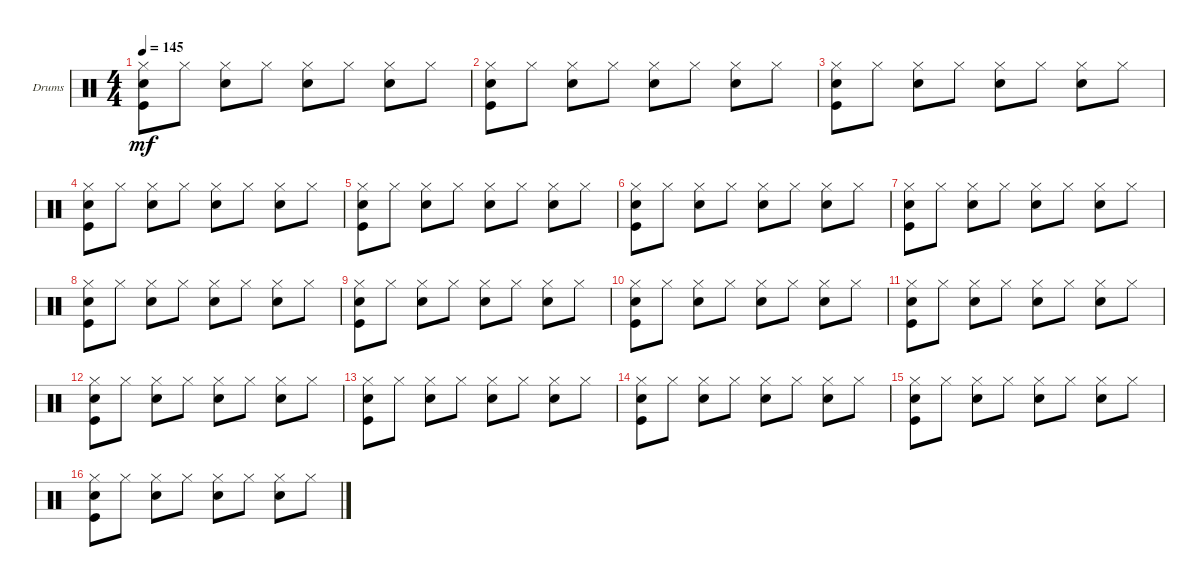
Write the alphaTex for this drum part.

\bracketExtendMode groupsimilarinstruments
\firstSystemTrackNameOrientation horizontal
\otherSystemsTrackNameOrientation horizontal
\track ("Drumkit" "Drums") {instrument percussion}
\staff {score}
\articulation defaults
\ts (4 4)
\tempo 145
\clef neutral
\ks c
("Hi-Hat (closed)" "Kick (hit)" "Snare (hit) 2").8{dy mf} "Hi-Hat (closed)".8 ("Hi-Hat (closed)" "Snare (hit) 2").8 "Hi-Hat (closed)".8 ("Hi-Hat (closed)" "Snare (hit) 2").8 "Hi-Hat (closed)".8 ("Hi-Hat (closed)" "Snare (hit) 2").8 "Hi-Hat (closed)".8 |
("Hi-Hat (closed)" "Kick (hit)" "Snare (hit) 2").8 "Hi-Hat (closed)".8 ("Hi-Hat (closed)" "Snare (hit) 2").8 "Hi-Hat (closed)".8 ("Hi-Hat (closed)" "Snare (hit) 2").8 "Hi-Hat (closed)".8 ("Hi-Hat (closed)" "Snare (hit) 2").8 "Hi-Hat (closed)".8 |
("Hi-Hat (closed)" "Kick (hit)" "Snare (hit) 2").8 "Hi-Hat (closed)".8 ("Hi-Hat (closed)" "Snare (hit) 2").8 "Hi-Hat (closed)".8 ("Hi-Hat (closed)" "Snare (hit) 2").8 "Hi-Hat (closed)".8 ("Hi-Hat (closed)" "Snare (hit) 2").8 "Hi-Hat (closed)".8 |
("Hi-Hat (closed)" "Kick (hit)" "Snare (hit) 2").8 "Hi-Hat (closed)".8 ("Hi-Hat (closed)" "Snare (hit) 2").8 "Hi-Hat (closed)".8 ("Hi-Hat (closed)" "Snare (hit) 2").8 "Hi-Hat (closed)".8 ("Hi-Hat (closed)" "Snare (hit) 2").8 "Hi-Hat (closed)".8 |
("Hi-Hat (closed)" "Kick (hit)" "Snare (hit) 2").8 "Hi-Hat (closed)".8 ("Hi-Hat (closed)" "Snare (hit) 2").8 "Hi-Hat (closed)".8 ("Hi-Hat (closed)" "Snare (hit) 2").8 "Hi-Hat (closed)".8 ("Hi-Hat (closed)" "Snare (hit) 2").8 "Hi-Hat (closed)".8 |
("Hi-Hat (closed)" "Kick (hit)" "Snare (hit) 2").8 "Hi-Hat (closed)".8 ("Hi-Hat (closed)" "Snare (hit) 2").8 "Hi-Hat (closed)".8 ("Hi-Hat (closed)" "Snare (hit) 2").8 "Hi-Hat (closed)".8 ("Hi-Hat (closed)" "Snare (hit) 2").8 "Hi-Hat (closed)".8 |
("Hi-Hat (closed)" "Kick (hit)" "Snare (hit) 2").8 "Hi-Hat (closed)".8 ("Hi-Hat (closed)" "Snare (hit) 2").8 "Hi-Hat (closed)".8 ("Hi-Hat (closed)" "Snare (hit) 2").8 "Hi-Hat (closed)".8 ("Hi-Hat (closed)" "Snare (hit) 2").8 "Hi-Hat (closed)".8 |
("Hi-Hat (closed)" "Kick (hit)" "Snare (hit) 2").8 "Hi-Hat (closed)".8 ("Hi-Hat (closed)" "Snare (hit) 2").8 "Hi-Hat (closed)".8 ("Hi-Hat (closed)" "Snare (hit) 2").8 "Hi-Hat (closed)".8 ("Hi-Hat (closed)" "Snare (hit) 2").8 "Hi-Hat (closed)".8 |
("Hi-Hat (closed)" "Kick (hit)" "Snare (hit) 2").8 "Hi-Hat (closed)".8 ("Hi-Hat (closed)" "Snare (hit) 2").8 "Hi-Hat (closed)".8 ("Hi-Hat (closed)" "Snare (hit) 2").8 "Hi-Hat (closed)".8 ("Hi-Hat (closed)" "Snare (hit) 2").8 "Hi-Hat (closed)".8 |
("Hi-Hat (closed)" "Kick (hit)" "Snare (hit) 2").8 "Hi-Hat (closed)".8 ("Hi-Hat (closed)" "Snare (hit) 2").8 "Hi-Hat (closed)".8 ("Hi-Hat (closed)" "Snare (hit) 2").8 "Hi-Hat (closed)".8 ("Hi-Hat (closed)" "Snare (hit) 2").8 "Hi-Hat (closed)".8 |
("Hi-Hat (closed)" "Kick (hit)" "Snare (hit) 2").8 "Hi-Hat (closed)".8 ("Hi-Hat (closed)" "Snare (hit) 2").8 "Hi-Hat (closed)".8 ("Hi-Hat (closed)" "Snare (hit) 2").8 "Hi-Hat (closed)".8 ("Hi-Hat (closed)" "Snare (hit) 2").8 "Hi-Hat (closed)".8 |
("Hi-Hat (closed)" "Kick (hit)" "Snare (hit) 2").8 "Hi-Hat (closed)".8 ("Hi-Hat (closed)" "Snare (hit) 2").8 "Hi-Hat (closed)".8 ("Hi-Hat (closed)" "Snare (hit) 2").8 "Hi-Hat (closed)".8 ("Hi-Hat (closed)" "Snare (hit) 2").8 "Hi-Hat (closed)".8 |
("Hi-Hat (closed)" "Kick (hit)" "Snare (hit) 2").8 "Hi-Hat (closed)".8 ("Hi-Hat (closed)" "Snare (hit) 2").8 "Hi-Hat (closed)".8 ("Hi-Hat (closed)" "Snare (hit) 2").8 "Hi-Hat (closed)".8 ("Hi-Hat (closed)" "Snare (hit) 2").8 "Hi-Hat (closed)".8 |
("Hi-Hat (closed)" "Kick (hit)" "Snare (hit) 2").8 "Hi-Hat (closed)".8 ("Hi-Hat (closed)" "Snare (hit) 2").8 "Hi-Hat (closed)".8 ("Hi-Hat (closed)" "Snare (hit) 2").8 "Hi-Hat (closed)".8 ("Hi-Hat (closed)" "Snare (hit) 2").8 "Hi-Hat (closed)".8 |
("Hi-Hat (closed)" "Kick (hit)" "Snare (hit) 2").8 "Hi-Hat (closed)".8 ("Hi-Hat (closed)" "Snare (hit) 2").8 "Hi-Hat (closed)".8 ("Hi-Hat (closed)" "Snare (hit) 2").8 "Hi-Hat (closed)".8 ("Hi-Hat (closed)" "Snare (hit) 2").8 "Hi-Hat (closed)".8 |
("Hi-Hat (closed)" "Kick (hit)" "Snare (hit) 2").8 "Hi-Hat (closed)".8 ("Hi-Hat (closed)" "Snare (hit) 2").8 "Hi-Hat (closed)".8 ("Hi-Hat (closed)" "Snare (hit) 2").8 "Hi-Hat (closed)".8 ("Hi-Hat (closed)" "Snare (hit) 2").8 "Hi-Hat (closed)".8
